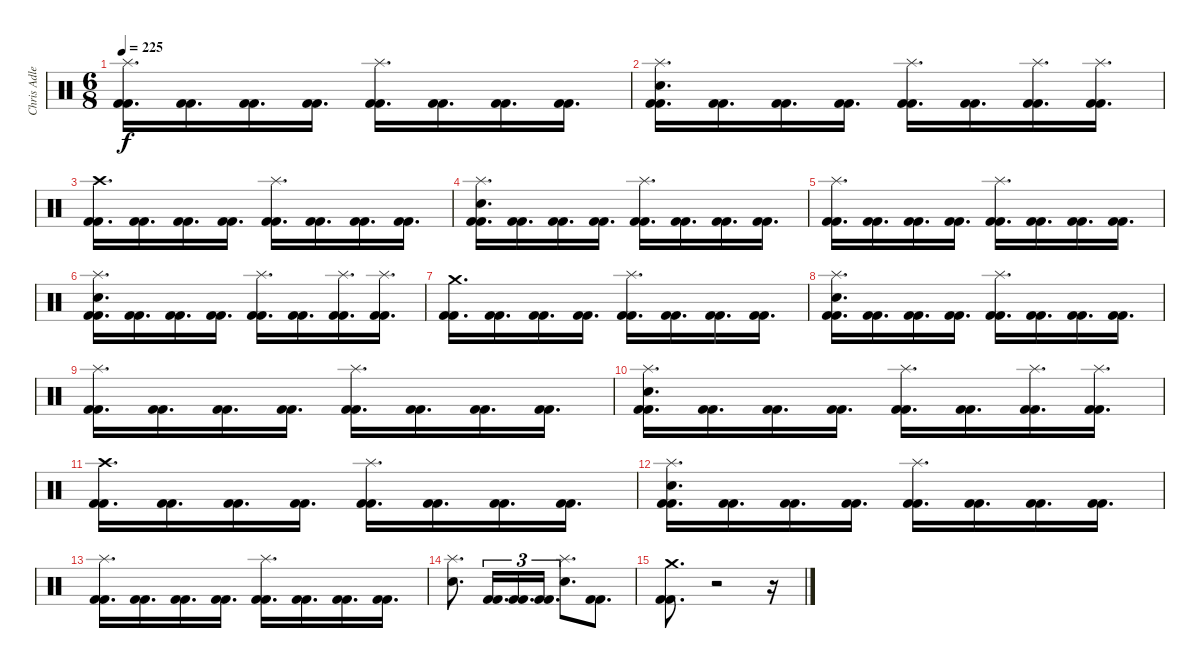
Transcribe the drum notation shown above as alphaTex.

\track ("Chris Adler" "Chris Adle") {instrument percussion}
\staff {score}
\articulation defaults
\ts (6 8)
\tempo 225
\clef neutral
\ks c
("Splash (hit)" "Kick (hit) 2" "Kick (hit) 2").16{d dy f} ("Kick (hit) 2" "Kick (hit) 2").16{d} ("Kick (hit) 2" "Kick (hit) 2").16{d} ("Kick (hit) 2" "Kick (hit) 2").16{d} ("Splash (hit)" "Kick (hit) 2" "Kick (hit) 2").16{d} ("Kick (hit) 2" "Kick (hit) 2").16{d} ("Kick (hit) 2" "Kick (hit) 2").16{d} ("Kick (hit) 2" "Kick (hit) 2").16{d} |
("Splash (hit)" "Electric Snare (hit)" "Kick (hit) 2" "Kick (hit) 2").16{d} ("Kick (hit) 2" "Kick (hit) 2").16{d} ("Kick (hit) 2" "Kick (hit) 2").16{d} ("Kick (hit) 2" "Kick (hit) 2").16{d} ("Splash (hit)" "Kick (hit) 2" "Kick (hit) 2").16{d} ("Kick (hit) 2" "Kick (hit) 2").16{d} ("Splash (hit)" "Kick (hit) 2" "Kick (hit) 2").16{d} ("Splash (hit)" "Kick (hit) 2" "Kick (hit) 2").16{d} |
("Crash high (hit)" "Kick (hit) 2" "Kick (hit) 2").16{d} ("Kick (hit) 2" "Kick (hit) 2").16{d} ("Kick (hit) 2" "Kick (hit) 2").16{d} ("Kick (hit) 2" "Kick (hit) 2").16{d} ("Splash (hit)" "Kick (hit) 2" "Kick (hit) 2").16{d} ("Kick (hit) 2" "Kick (hit) 2").16{d} ("Kick (hit) 2" "Kick (hit) 2").16{d} ("Kick (hit) 2" "Kick (hit) 2").16{d} |
("Splash (hit)" "Electric Snare (hit)" "Kick (hit) 2" "Kick (hit) 2").16{d} ("Kick (hit) 2" "Kick (hit) 2").16{d} ("Kick (hit) 2" "Kick (hit) 2").16{d} ("Kick (hit) 2" "Kick (hit) 2").16{d} ("Splash (hit)" "Kick (hit) 2" "Kick (hit) 2").16{d} ("Kick (hit) 2" "Kick (hit) 2").16{d} ("Kick (hit) 2" "Kick (hit) 2").16{d} ("Kick (hit) 2" "Kick (hit) 2").16{d} |
("Splash (hit)" "Kick (hit) 2" "Kick (hit) 2").16{d} ("Kick (hit) 2" "Kick (hit) 2").16{d} ("Kick (hit) 2" "Kick (hit) 2").16{d} ("Kick (hit) 2" "Kick (hit) 2").16{d} ("Splash (hit)" "Kick (hit) 2" "Kick (hit) 2").16{d} ("Kick (hit) 2" "Kick (hit) 2").16{d} ("Kick (hit) 2" "Kick (hit) 2").16{d} ("Kick (hit) 2" "Kick (hit) 2").16{d} |
("Splash (hit)" "Electric Snare (hit)" "Kick (hit) 2" "Kick (hit) 2").16{d} ("Kick (hit) 2" "Kick (hit) 2").16{d} ("Kick (hit) 2" "Kick (hit) 2").16{d} ("Kick (hit) 2" "Kick (hit) 2").16{d} ("Splash (hit)" "Kick (hit) 2" "Kick (hit) 2").16{d} ("Kick (hit) 2" "Kick (hit) 2").16{d} ("Splash (hit)" "Kick (hit) 2" "Kick (hit) 2").16{d} ("Splash (hit)" "Kick (hit) 2" "Kick (hit) 2").16{d} |
("Crash medium (hit)" "Kick (hit) 2" "Kick (hit) 2").16{d} ("Kick (hit) 2" "Kick (hit) 2").16{d} ("Kick (hit) 2" "Kick (hit) 2").16{d} ("Kick (hit) 2" "Kick (hit) 2").16{d} ("Splash (hit)" "Kick (hit) 2" "Kick (hit) 2").16{d} ("Kick (hit) 2" "Kick (hit) 2").16{d} ("Kick (hit) 2" "Kick (hit) 2").16{d} ("Kick (hit) 2" "Kick (hit) 2").16{d} |
("Splash (hit)" "Electric Snare (hit)" "Kick (hit) 2" "Kick (hit) 2").16{d} ("Kick (hit) 2" "Kick (hit) 2").16{d} ("Kick (hit) 2" "Kick (hit) 2").16{d} ("Kick (hit) 2" "Kick (hit) 2").16{d} ("Splash (hit)" "Kick (hit) 2" "Kick (hit) 2").16{d} ("Kick (hit) 2" "Kick (hit) 2").16{d} ("Kick (hit) 2" "Kick (hit) 2").16{d} ("Kick (hit) 2" "Kick (hit) 2").16{d} |
("Splash (hit)" "Kick (hit) 2" "Kick (hit) 2").16{d} ("Kick (hit) 2" "Kick (hit) 2").16{d} ("Kick (hit) 2" "Kick (hit) 2").16{d} ("Kick (hit) 2" "Kick (hit) 2").16{d} ("Splash (hit)" "Kick (hit) 2" "Kick (hit) 2").16{d} ("Kick (hit) 2" "Kick (hit) 2").16{d} ("Kick (hit) 2" "Kick (hit) 2").16{d} ("Kick (hit) 2" "Kick (hit) 2").16{d} |
("Splash (hit)" "Electric Snare (hit)" "Kick (hit) 2" "Kick (hit) 2").16{d} ("Kick (hit) 2" "Kick (hit) 2").16{d} ("Kick (hit) 2" "Kick (hit) 2").16{d} ("Kick (hit) 2" "Kick (hit) 2").16{d} ("Splash (hit)" "Kick (hit) 2" "Kick (hit) 2").16{d} ("Kick (hit) 2" "Kick (hit) 2").16{d} ("Splash (hit)" "Kick (hit) 2" "Kick (hit) 2").16{d} ("Splash (hit)" "Kick (hit) 2" "Kick (hit) 2").16{d} |
("Crash high (hit)" "Kick (hit) 2" "Kick (hit) 2").16{d} ("Kick (hit) 2" "Kick (hit) 2").16{d} ("Kick (hit) 2" "Kick (hit) 2").16{d} ("Kick (hit) 2" "Kick (hit) 2").16{d} ("Splash (hit)" "Kick (hit) 2" "Kick (hit) 2").16{d} ("Kick (hit) 2" "Kick (hit) 2").16{d} ("Kick (hit) 2" "Kick (hit) 2").16{d} ("Kick (hit) 2" "Kick (hit) 2").16{d} |
("Splash (hit)" "Electric Snare (hit)" "Kick (hit) 2" "Kick (hit) 2").16{d} ("Kick (hit) 2" "Kick (hit) 2").16{d} ("Kick (hit) 2" "Kick (hit) 2").16{d} ("Kick (hit) 2" "Kick (hit) 2").16{d} ("Splash (hit)" "Kick (hit) 2" "Kick (hit) 2").16{d} ("Kick (hit) 2" "Kick (hit) 2").16{d} ("Kick (hit) 2" "Kick (hit) 2").16{d} ("Kick (hit) 2" "Kick (hit) 2").16{d} |
("Splash (hit)" "Kick (hit) 2" "Kick (hit) 2").16{d} ("Kick (hit) 2" "Kick (hit) 2").16{d} ("Kick (hit) 2" "Kick (hit) 2").16{d} ("Kick (hit) 2" "Kick (hit) 2").16{d} ("Splash (hit)" "Kick (hit) 2" "Kick (hit) 2").16{d} ("Kick (hit) 2" "Kick (hit) 2").16{d} ("Kick (hit) 2" "Kick (hit) 2").16{d} ("Kick (hit) 2" "Kick (hit) 2").16{d} |
("Splash (hit)" "Electric Snare (hit)").8{d} ("Kick (hit) 2" "Kick (hit) 2").16{d tu (3 2)} ("Kick (hit) 2" "Kick (hit) 2").16{d tu (3 2)} ("Kick (hit) 2" "Kick (hit) 2").16{d tu (3 2)} ("Splash (hit)" "Electric Snare (hit)").8{d} ("Kick (hit) 2" "Kick (hit) 2").8{d} |
("Crash medium (hit)" "Kick (hit) 2" "Kick (hit) 2").8{d} r.2{volume 0} r.16
